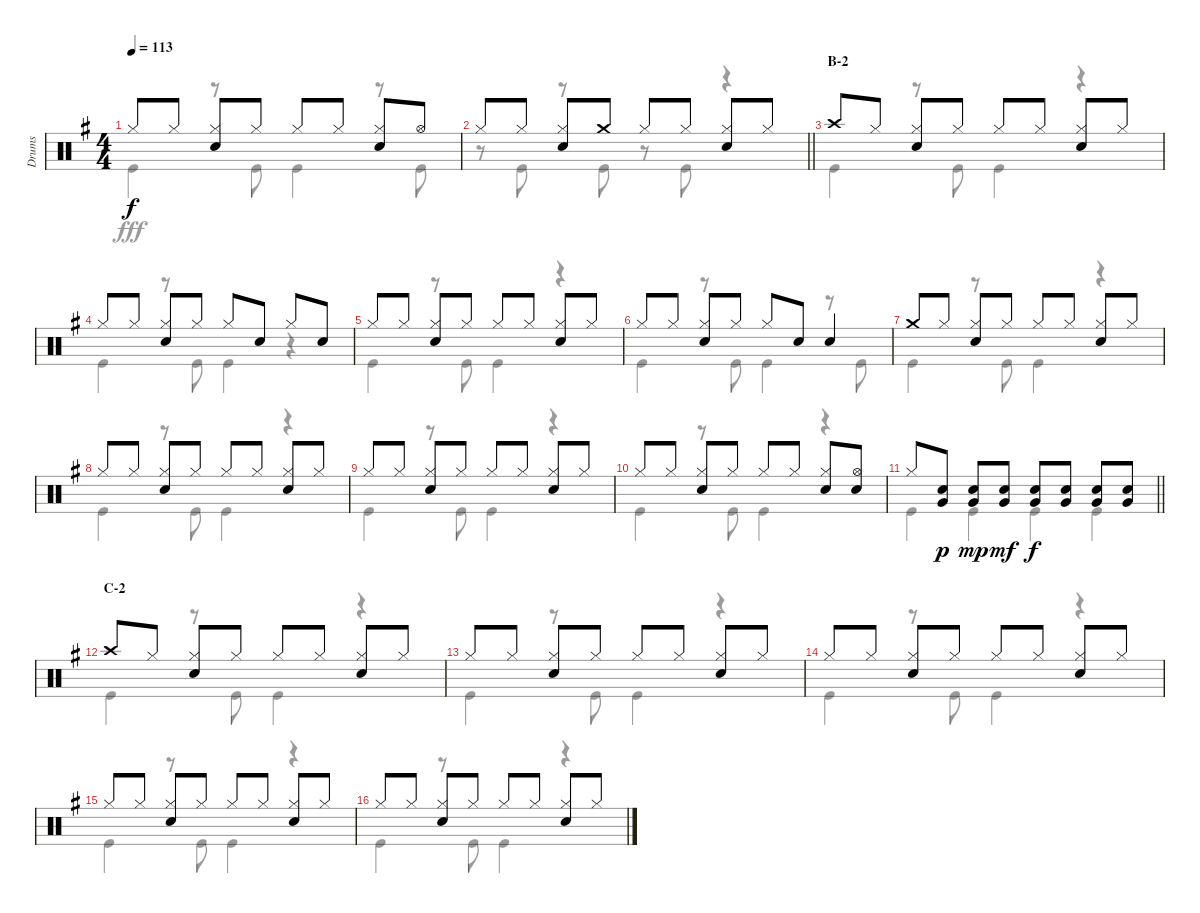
\track ("Drums" "Drums") {instrument percussion}
\staff {score}
\articulation defaults
\voice
\ts (4 4)
\tempo 113
\clef neutral
\ks g "Hi-Hat (closed)".8{dy f} "Hi-Hat (closed)".8
("Hi-Hat (closed)" "Snare (hit) 2").8 "Hi-Hat (closed)".8 "Hi-Hat (closed)".8 "Hi-Hat (closed)".8 ("Hi-Hat (closed)" "Snare (hit) 2").8 "Hi-Hat (open)".8 |
\barLineRight lightlight "Hi-Hat (closed)".8 "Hi-Hat (closed)".8
("Hi-Hat (closed)" "Snare (hit) 2").8 "Crash medium (hit)".8 "Hi-Hat (closed)".8 "Hi-Hat (closed)".8 ("Hi-Hat (closed)" "Snare (hit) 2").8 "Hi-Hat (closed)".8 |
\section ("" "B-2")
"Crash high (hit)".8 "Hi-Hat (closed)".8 ("Hi-Hat (closed)" "Snare (hit) 2").8 "Hi-Hat (closed)".8 "Hi-Hat (closed)".8 "Hi-Hat (closed)".8 ("Hi-Hat (closed)" "Snare (hit) 2").8 "Hi-Hat (closed)".8 |
"Hi-Hat (closed)".8 "Hi-Hat (closed)".8 ("Hi-Hat (closed)" "Snare (hit) 2").8 "Hi-Hat (closed)".8 "Hi-Hat (closed)".8 "Snare (hit) 2".8 "Hi-Hat (closed)".8 "Snare (hit) 2".8 |
"Hi-Hat (closed)".8 "Hi-Hat (closed)".8 ("Hi-Hat (closed)" "Snare (hit) 2").8 "Hi-Hat (closed)".8 "Hi-Hat (closed)".8 "Hi-Hat (closed)".8 ("Hi-Hat (closed)" "Snare (hit) 2").8 "Hi-Hat (closed)".8 |
"Hi-Hat (closed)".8 "Hi-Hat (closed)".8 ("Hi-Hat (closed)" "Snare (hit) 2").8 "Hi-Hat (closed)".8 "Hi-Hat (closed)".8 "Snare (hit) 2".8 "Snare (hit) 2".4 |
"Crash medium (hit)".8 "Hi-Hat (closed)".8 ("Hi-Hat (closed)" "Snare (hit) 2").8 "Hi-Hat (closed)".8 "Hi-Hat (closed)".8 "Hi-Hat (closed)".8 ("Hi-Hat (closed)" "Snare (hit) 2").8 "Hi-Hat (closed)".8 |
"Hi-Hat (closed)".8 "Hi-Hat (closed)".8 ("Hi-Hat (closed)" "Snare (hit) 2").8 "Hi-Hat (closed)".8 "Hi-Hat (closed)".8 "Hi-Hat (closed)".8 ("Hi-Hat (closed)" "Snare (hit) 2").8 "Hi-Hat (closed)".8 |
"Hi-Hat (closed)".8 "Hi-Hat (closed)".8 ("Hi-Hat (closed)" "Snare (hit) 2").8 "Hi-Hat (closed)".8 "Hi-Hat (closed)".8 "Hi-Hat (closed)".8 ("Hi-Hat (closed)" "Snare (hit) 2").8 "Hi-Hat (closed)".8 |
"Hi-Hat (closed)".8 "Hi-Hat (closed)".8 ("Hi-Hat (closed)" "Snare (hit) 2").8 "Hi-Hat (closed)".8 "Hi-Hat (closed)".8 "Hi-Hat (closed)".8 ("Hi-Hat (closed)" "Snare (hit) 2").8 ("Hi-Hat (open)" "Snare (hit) 2").8 |
\barLineRight lightlight "Hi-Hat (closed)".8
("Snare (hit) 2" "Very Low Tom (hit)").8{dy p} ("Snare (hit) 2" "Very Low Tom (hit)").8{dy mp} ("Snare (hit) 2" "Very Low Tom (hit)").8{dy mf} ("Snare (hit) 2" "Very Low Tom (hit)").8{dy f} ("Snare (hit) 2" "Very Low Tom (hit)").8 ("Snare (hit) 2" "Very Low Tom (hit)").8 ("Snare (hit) 2" "Very Low Tom (hit)").8 |
\section ("" "C-2")
"Crash high (hit)".8 "Hi-Hat (closed)".8 ("Hi-Hat (closed)" "Snare (hit) 2").8 "Hi-Hat (closed)".8 "Hi-Hat (closed)".8 "Hi-Hat (closed)".8 ("Hi-Hat (closed)" "Snare (hit) 2").8 "Hi-Hat (closed)".8 |
"Hi-Hat (closed)".8 "Hi-Hat (closed)".8 ("Hi-Hat (closed)" "Snare (hit) 2").8 "Hi-Hat (closed)".8 "Hi-Hat (closed)".8 "Hi-Hat (closed)".8 ("Hi-Hat (closed)" "Snare (hit) 2").8 "Hi-Hat (closed)".8 |
"Hi-Hat (closed)".8 "Hi-Hat (closed)".8 ("Hi-Hat (closed)" "Snare (hit) 2").8 "Hi-Hat (closed)".8 "Hi-Hat (closed)".8 "Hi-Hat (closed)".8 ("Hi-Hat (closed)" "Snare (hit) 2").8 "Hi-Hat (closed)".8 |
"Hi-Hat (closed)".8 "Hi-Hat (closed)".8 ("Hi-Hat (closed)" "Snare (hit) 2").8 "Hi-Hat (closed)".8 "Hi-Hat (closed)".8 "Hi-Hat (closed)".8 ("Hi-Hat (closed)" "Snare (hit) 2").8 "Hi-Hat (closed)".8 |
"Hi-Hat (closed)".8 "Hi-Hat (closed)".8 ("Hi-Hat (closed)" "Snare (hit) 2").8 "Hi-Hat (closed)".8 "Hi-Hat (closed)".8 "Hi-Hat (closed)".8 ("Hi-Hat (closed)" "Snare (hit) 2").8 "Hi-Hat (closed)".8
\voice
\clef neutral
\ottava regular
\simile none
\ks g "Kick (hit)".4{dy fff}
r.8 "Kick (hit)".8 "Kick (hit)".4 r.8 "Kick (hit)".8 |
\barLineRight lightlight
r.8 "Kick (hit)".8 r.8 "Kick (hit)".8 r.8 "Kick (hit)".8 r.4 |
"Kick (hit)".4 r.8 "Kick (hit)".8 "Kick (hit)".4 r.4 |
"Kick (hit)".4 r.8 "Kick (hit)".8 "Kick (hit)".4 r.4 |
"Kick (hit)".4 r.8 "Kick (hit)".8 "Kick (hit)".4 r.4 |
"Kick (hit)".4 r.8 "Kick (hit)".8 "Kick (hit)".4 r.8 "Kick (hit)".8 |
"Kick (hit)".4 r.8 "Kick (hit)".8 "Kick (hit)".4 r.4 |
"Kick (hit)".4 r.8 "Kick (hit)".8 "Kick (hit)".4 r.4 |
"Kick (hit)".4 r.8 "Kick (hit)".8 "Kick (hit)".4 r.4 |
"Kick (hit)".4 r.8 "Kick (hit)".8 "Kick (hit)".4 r.4 |
\barLineRight lightlight "Kick (hit)".4 "Kick (hit)".4 "Kick (hit)".4 "Kick (hit)".4
|
"Kick (hit)".4 r.8 "Kick (hit)".8 "Kick (hit)".4 r.4 |
"Kick (hit)".4 r.8 "Kick (hit)".8 "Kick (hit)".4 r.4 |
"Kick (hit)".4 r.8 "Kick (hit)".8 "Kick (hit)".4 r.4 |
"Kick (hit)".4 r.8 "Kick (hit)".8 "Kick (hit)".4 r.4 |
"Kick (hit)".4 r.8 "Kick (hit)".8 "Kick (hit)".4 r.4
